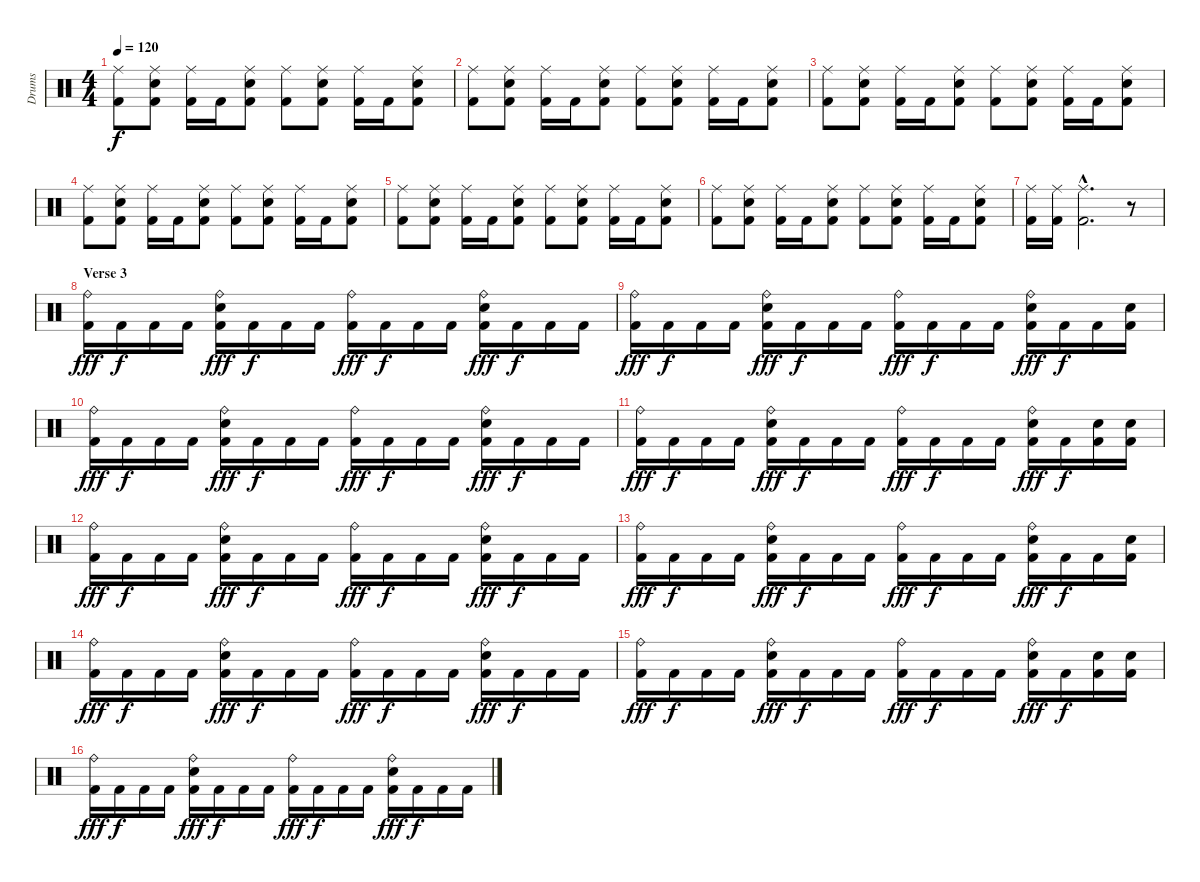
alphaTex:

\track ("Drums" "Drums") {instrument percussion}
\staff {score}
\articulation defaults
\ts (4 4)
\tempo 120
\clef neutral
\ks c
("Ride (middle)" "Kick (hit) 2").8{dy f} ("Ride (middle)" "Electric Snare (hit)" "Kick (hit) 2").8 ("Ride (middle)" "Kick (hit) 2").16 "Kick (hit) 2".16 ("Ride (middle)" "Electric Snare (hit)" "Kick (hit) 2").8 ("Ride (middle)" "Kick (hit) 2").8 ("Ride (middle)" "Electric Snare (hit)" "Kick (hit) 2").8 ("Ride (middle)" "Kick (hit) 2").16 "Kick (hit) 2".16 ("Ride (middle)" "Electric Snare (hit)" "Kick (hit) 2").8 |
("Ride (middle)" "Kick (hit) 2").8 ("Ride (middle)" "Electric Snare (hit)" "Kick (hit) 2").8 ("Ride (middle)" "Kick (hit) 2").16 "Kick (hit) 2".16 ("Ride (middle)" "Electric Snare (hit)" "Kick (hit) 2").8 ("Ride (middle)" "Kick (hit) 2").8 ("Ride (middle)" "Electric Snare (hit)" "Kick (hit) 2").8 ("Ride (middle)" "Kick (hit) 2").16 "Kick (hit) 2".16 ("Ride (middle)" "Electric Snare (hit)" "Kick (hit) 2").8 |
("Ride (middle)" "Kick (hit) 2").8 ("Ride (middle)" "Electric Snare (hit)" "Kick (hit) 2").8 ("Ride (middle)" "Kick (hit) 2").16 "Kick (hit) 2".16 ("Ride (middle)" "Electric Snare (hit)" "Kick (hit) 2").8 ("Ride (middle)" "Kick (hit) 2").8 ("Ride (middle)" "Electric Snare (hit)" "Kick (hit) 2").8 ("Ride (middle)" "Kick (hit) 2").16 "Kick (hit) 2".16 ("Ride (middle)" "Electric Snare (hit)" "Kick (hit) 2").8 |
("Ride (middle)" "Kick (hit) 2").8 ("Ride (middle)" "Electric Snare (hit)" "Kick (hit) 2").8 ("Ride (middle)" "Kick (hit) 2").16 "Kick (hit) 2".16 ("Ride (middle)" "Electric Snare (hit)" "Kick (hit) 2").8 ("Ride (middle)" "Kick (hit) 2").8 ("Ride (middle)" "Electric Snare (hit)" "Kick (hit) 2").8 ("Ride (middle)" "Kick (hit) 2").16 "Kick (hit) 2".16 ("Ride (middle)" "Electric Snare (hit)" "Kick (hit) 2").8 |
("Ride (middle)" "Kick (hit) 2").8 ("Ride (middle)" "Electric Snare (hit)" "Kick (hit) 2").8 ("Ride (middle)" "Kick (hit) 2").16 "Kick (hit) 2".16 ("Ride (middle)" "Electric Snare (hit)" "Kick (hit) 2").8 ("Ride (middle)" "Kick (hit) 2").8 ("Ride (middle)" "Electric Snare (hit)" "Kick (hit) 2").8 ("Ride (middle)" "Kick (hit) 2").16 "Kick (hit) 2".16 ("Ride (middle)" "Electric Snare (hit)" "Kick (hit) 2").8 |
("Ride (middle)" "Kick (hit) 2").8 ("Ride (middle)" "Electric Snare (hit)" "Kick (hit) 2").8 ("Ride (middle)" "Kick (hit) 2").16 "Kick (hit) 2".16 ("Ride (middle)" "Electric Snare (hit)" "Kick (hit) 2").8 ("Ride (middle)" "Kick (hit) 2").8 ("Ride (middle)" "Electric Snare (hit)" "Kick (hit) 2").8 ("Ride (middle)" "Kick (hit) 2").16 "Kick (hit) 2".16 ("Ride (middle)" "Electric Snare (hit)" "Kick (hit) 2").8 |
("Ride (middle)" "Kick (hit) 2").16 ("Ride (middle)" "Kick (hit) 2").16 ("Ride (middle)"{hac} "Kick (hit) 2"{hac}).2{d} r.8 |
\section ("" "Verse 3")
("Ride (bell)" "Kick (hit) 2").16{dy fff} "Kick (hit) 2".16{dy f} "Kick (hit) 2".16 "Kick (hit) 2".16 ("Ride (bell)" "Electric Snare (hit)" "Kick (hit) 2").16{dy fff} "Kick (hit) 2".16{dy f} "Kick (hit) 2".16 "Kick (hit) 2".16 ("Ride (bell)" "Kick (hit) 2").16{dy fff} "Kick (hit) 2".16{dy f} "Kick (hit) 2".16 "Kick (hit) 2".16 ("Ride (bell)" "Electric Snare (hit)" "Kick (hit) 2").16{dy fff} "Kick (hit) 2".16{dy f} "Kick (hit) 2".16 "Kick (hit) 2".16 |
("Ride (bell)" "Kick (hit) 2").16{dy fff} "Kick (hit) 2".16{dy f} "Kick (hit) 2".16 "Kick (hit) 2".16 ("Ride (bell)" "Electric Snare (hit)" "Kick (hit) 2").16{dy fff} "Kick (hit) 2".16{dy f} "Kick (hit) 2".16 "Kick (hit) 2".16 ("Ride (bell)" "Kick (hit) 2").16{dy fff} "Kick (hit) 2".16{dy f} "Kick (hit) 2".16 "Kick (hit) 2".16 ("Ride (bell)" "Electric Snare (hit)" "Kick (hit) 2").16{dy fff} "Kick (hit) 2".16{dy f} "Kick (hit) 2".16 ("Electric Snare (hit)" "Kick (hit) 2").16 |
("Ride (bell)" "Kick (hit) 2").16{dy fff} "Kick (hit) 2".16{dy f} "Kick (hit) 2".16 "Kick (hit) 2".16 ("Ride (bell)" "Electric Snare (hit)" "Kick (hit) 2").16{dy fff} "Kick (hit) 2".16{dy f} "Kick (hit) 2".16 "Kick (hit) 2".16 ("Ride (bell)" "Kick (hit) 2").16{dy fff} "Kick (hit) 2".16{dy f} "Kick (hit) 2".16 "Kick (hit) 2".16 ("Ride (bell)" "Electric Snare (hit)" "Kick (hit) 2").16{dy fff} "Kick (hit) 2".16{dy f} "Kick (hit) 2".16 "Kick (hit) 2".16 |
("Ride (bell)" "Kick (hit) 2").16{dy fff} "Kick (hit) 2".16{dy f} "Kick (hit) 2".16 "Kick (hit) 2".16 ("Ride (bell)" "Electric Snare (hit)" "Kick (hit) 2").16{dy fff} "Kick (hit) 2".16{dy f} "Kick (hit) 2".16 "Kick (hit) 2".16 ("Ride (bell)" "Kick (hit) 2").16{dy fff} "Kick (hit) 2".16{dy f} "Kick (hit) 2".16 "Kick (hit) 2".16 ("Ride (bell)" "Electric Snare (hit)" "Kick (hit) 2").16{dy fff} "Kick (hit) 2".16{dy f} ("Electric Snare (hit)" "Kick (hit) 2").16 ("Electric Snare (hit)" "Kick (hit) 2").16 |
("Ride (bell)" "Kick (hit) 2").16{dy fff} "Kick (hit) 2".16{dy f} "Kick (hit) 2".16 "Kick (hit) 2".16 ("Ride (bell)" "Electric Snare (hit)" "Kick (hit) 2").16{dy fff} "Kick (hit) 2".16{dy f} "Kick (hit) 2".16 "Kick (hit) 2".16 ("Ride (bell)" "Kick (hit) 2").16{dy fff} "Kick (hit) 2".16{dy f} "Kick (hit) 2".16 "Kick (hit) 2".16 ("Ride (bell)" "Electric Snare (hit)" "Kick (hit) 2").16{dy fff} "Kick (hit) 2".16{dy f} "Kick (hit) 2".16 "Kick (hit) 2".16 |
("Ride (bell)" "Kick (hit) 2").16{dy fff} "Kick (hit) 2".16{dy f} "Kick (hit) 2".16 "Kick (hit) 2".16 ("Ride (bell)" "Electric Snare (hit)" "Kick (hit) 2").16{dy fff} "Kick (hit) 2".16{dy f} "Kick (hit) 2".16 "Kick (hit) 2".16 ("Ride (bell)" "Kick (hit) 2").16{dy fff} "Kick (hit) 2".16{dy f} "Kick (hit) 2".16 "Kick (hit) 2".16 ("Ride (bell)" "Electric Snare (hit)" "Kick (hit) 2").16{dy fff} "Kick (hit) 2".16{dy f} "Kick (hit) 2".16 ("Electric Snare (hit)" "Kick (hit) 2").16 |
("Ride (bell)" "Kick (hit) 2").16{dy fff} "Kick (hit) 2".16{dy f} "Kick (hit) 2".16 "Kick (hit) 2".16 ("Ride (bell)" "Electric Snare (hit)" "Kick (hit) 2").16{dy fff} "Kick (hit) 2".16{dy f} "Kick (hit) 2".16 "Kick (hit) 2".16 ("Ride (bell)" "Kick (hit) 2").16{dy fff} "Kick (hit) 2".16{dy f} "Kick (hit) 2".16 "Kick (hit) 2".16 ("Ride (bell)" "Electric Snare (hit)" "Kick (hit) 2").16{dy fff} "Kick (hit) 2".16{dy f} "Kick (hit) 2".16 "Kick (hit) 2".16 |
("Ride (bell)" "Kick (hit) 2").16{dy fff} "Kick (hit) 2".16{dy f} "Kick (hit) 2".16 "Kick (hit) 2".16 ("Ride (bell)" "Electric Snare (hit)" "Kick (hit) 2").16{dy fff} "Kick (hit) 2".16{dy f} "Kick (hit) 2".16 "Kick (hit) 2".16 ("Ride (bell)" "Kick (hit) 2").16{dy fff} "Kick (hit) 2".16{dy f} "Kick (hit) 2".16 "Kick (hit) 2".16 ("Ride (bell)" "Electric Snare (hit)" "Kick (hit) 2").16{dy fff} "Kick (hit) 2".16{dy f} ("Electric Snare (hit)" "Kick (hit) 2").16 ("Electric Snare (hit)" "Kick (hit) 2").16 |
("Ride (bell)" "Kick (hit) 2").16{dy fff} "Kick (hit) 2".16{dy f} "Kick (hit) 2".16 "Kick (hit) 2".16 ("Ride (bell)" "Electric Snare (hit)" "Kick (hit) 2").16{dy fff} "Kick (hit) 2".16{dy f} "Kick (hit) 2".16 "Kick (hit) 2".16 ("Ride (bell)" "Kick (hit) 2").16{dy fff} "Kick (hit) 2".16{dy f} "Kick (hit) 2".16 "Kick (hit) 2".16 ("Ride (bell)" "Electric Snare (hit)" "Kick (hit) 2").16{dy fff} "Kick (hit) 2".16{dy f} "Kick (hit) 2".16 "Kick (hit) 2".16
